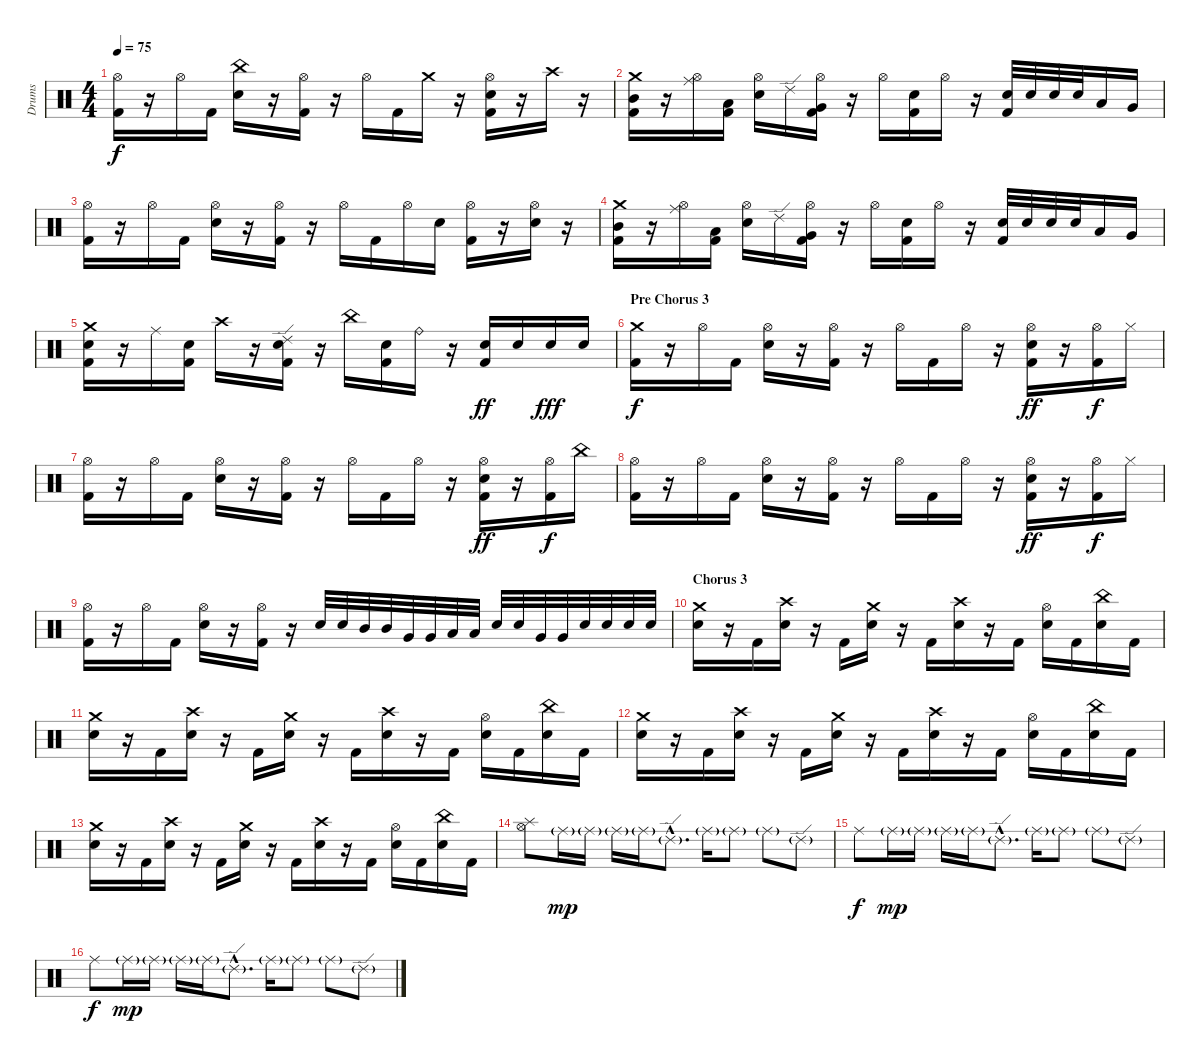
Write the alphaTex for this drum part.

\track ("Drums" "Drums") {instrument percussion}
\staff {score}
\articulation defaults
\ts (4 4)
\tempo 75
\clef neutral
\ks c
("Hi-Hat (open)" "Kick (hit) 2").16{dy f} r.16 "Hi-Hat (open)".16 "Kick (hit) 2".16 ("China (hit)" "Snare (hit) 2").16 r.16 ("Hi-Hat (open)" "Kick (hit) 2").16 r.16 "Hi-Hat (open)".16 "Kick (hit) 2".16 "Crash medium (hit)".16 r.16 ("Hi-Hat (open)" "Snare (hit) 2" "Kick (hit) 2").16 r.16 "Crash high (hit)".16 r.16 |
("Crash medium (hit)" "Mid Tom (hit)" "Kick (hit) 2").16 r.16 ("Ride (middle)" "Hi-Hat (open)").16 ("Low Tom (hit)" "Kick (hit) 2").16 ("Hi-Hat (open)" "Snare (hit) 2").16 "Ride (edge) 2".16 ("Hi-Hat (open)" "Very Low Tom (hit)" "Kick (hit) 2").16 r.16 "Hi-Hat (open)".16 ("Snare (hit) 2" "Kick (hit) 2").16 "Hi-Hat (open)".16 r.16 ("Snare (hit) 2" "Kick (hit) 2").32 "Snare (hit) 2".32 "Snare (hit) 2".32 "Snare (hit) 2".32 "Low Tom (hit)".16 "Very Low Tom (hit)".16 |
("Hi-Hat (open)" "Kick (hit) 2").16 r.16 "Hi-Hat (open)".16 "Kick (hit) 2".16 ("Hi-Hat (open)" "Snare (hit) 2").16 r.16 ("Hi-Hat (open)" "Kick (hit) 2").16 r.16 "Hi-Hat (open)".16 "Kick (hit) 2".16 "Hi-Hat (open)".16 "Snare (hit) 2".16 ("Hi-Hat (open)" "Kick (hit) 2").16 r.16 ("Hi-Hat (open)" "Snare (hit) 2").16 r.16 |
("Crash medium (hit)" "Mid Tom (hit)" "Kick (hit) 2").16 r.16 ("Ride (middle)" "Hi-Hat (open)").16 ("Low Tom (hit)" "Kick (hit) 2").16 ("Hi-Hat (open)" "Snare (hit) 2").16 "Ride (edge) 2".16 ("Hi-Hat (open)" "Very Low Tom (hit)" "Kick (hit) 2").16 r.16 "Hi-Hat (open)".16 ("Snare (hit) 2" "Kick (hit) 2").16 "Hi-Hat (open)".16 r.16 ("Snare (hit) 2" "Kick (hit) 2").32 "Snare (hit) 2".32 "Snare (hit) 2".32 "Snare (hit) 2".32 "Low Tom (hit)".16 "Very Low Tom (hit)".16 |
("Crash medium (hit)" "Snare (hit) 2" "Kick (hit) 2").16 r.16 "Ride (middle)".16 ("Snare (hit) 2" "Kick (hit) 2").16 "Crash high (hit)".16 r.16 ("Ride (edge) 2" "Snare (hit) 2" "Kick (hit) 2").16 r.16 "China (hit)".16 ("Snare (hit) 2" "Kick (hit) 2").16 "Ride (bell)".16 r.16 ("Snare (hit) 2" "Kick (hit) 2").16{dy ff} "Snare (hit) 2".16 "Snare (hit) 2".16{dy fff} "Snare (hit) 2".16 |
\section ("" "Pre Chorus 3")
("Crash medium (hit)" "Kick (hit) 2").16{dy f} r.16 "Hi-Hat (open)".16 "Kick (hit) 2".16 ("Hi-Hat (open)" "Snare (hit) 2").16 r.16 ("Hi-Hat (open)" "Kick (hit) 2").16 r.16 "Hi-Hat (open)".16 "Kick (hit) 2".16 "Hi-Hat (open)".16 r.16 ("Hi-Hat (open)" "Snare (hit) 2" "Kick (hit) 2").16{dy ff} r.16 ("Hi-Hat (open)" "Kick (hit) 2").16{dy f} "Hi-Hat (closed)".16 |
("Hi-Hat (open)" "Kick (hit) 2").16 r.16 "Hi-Hat (open)".16 "Kick (hit) 2".16 ("Hi-Hat (open)" "Snare (hit) 2").16 r.16 ("Hi-Hat (open)" "Kick (hit) 2").16 r.16 "Hi-Hat (open)".16 "Kick (hit) 2".16 "Hi-Hat (open)".16 r.16 ("Hi-Hat (open)" "Snare (hit) 2" "Kick (hit) 2").16{dy ff} r.16 ("Hi-Hat (open)" "Kick (hit) 2").16{dy f} "China (hit)".16 |
("Hi-Hat (open)" "Kick (hit) 2").16 r.16 "Hi-Hat (open)".16 "Kick (hit) 2".16 ("Hi-Hat (open)" "Snare (hit) 2").16 r.16 ("Hi-Hat (open)" "Kick (hit) 2").16 r.16 "Hi-Hat (open)".16 "Kick (hit) 2".16 "Hi-Hat (open)".16 r.16 ("Hi-Hat (open)" "Snare (hit) 2" "Kick (hit) 2").16{dy ff} r.16 ("Hi-Hat (open)" "Kick (hit) 2").16{dy f} "Hi-Hat (closed)".16 |
("Hi-Hat (open)" "Kick (hit) 2").16 r.16 "Hi-Hat (open)".16 "Kick (hit) 2".16 ("Hi-Hat (open)" "Snare (hit) 2").16 r.16 ("Hi-Hat (open)" "Kick (hit) 2").16 r.16 "Snare (hit) 2".32 "Snare (hit) 2".32 "Mid Tom (hit)".32 "Mid Tom (hit)".32 "Very Low Tom (hit)".32 "Very Low Tom (hit)".32 "Low Tom (hit)".32 "Low Tom (hit)".32 "Snare (hit) 2".32 "Snare (hit) 2".32 "Very Low Tom (hit)".32 "Very Low Tom (hit)".32 "Snare (hit) 2".32 "Snare (hit) 2".32 "Snare (hit) 2".32 "Snare (hit) 2".32 |
\section ("" "Chorus 3")
("Crash medium (hit)" "Snare (hit) 2").16 r.16 "Kick (hit) 2".16 ("Crash high (hit)" "Snare (hit) 2").16 r.16 "Kick (hit) 2".16 ("Crash medium (hit)" "Snare (hit) 2").16 r.16 "Kick (hit) 2".16 ("Crash high (hit)" "Snare (hit) 2").16 r.16 "Kick (hit) 2".16 ("Hi-Hat (open)" "Snare (hit) 2").16 "Kick (hit) 2".16 ("China (hit)" "Snare (hit) 2").16 "Kick (hit) 2".16 |
("Crash medium (hit)" "Snare (hit) 2").16 r.16 "Kick (hit) 2".16 ("Crash high (hit)" "Snare (hit) 2").16 r.16 "Kick (hit) 2".16 ("Crash medium (hit)" "Snare (hit) 2").16 r.16 "Kick (hit) 2".16 ("Crash high (hit)" "Snare (hit) 2").16 r.16 "Kick (hit) 2".16 ("Hi-Hat (open)" "Snare (hit) 2").16 "Kick (hit) 2".16 ("China (hit)" "Snare (hit) 2").16 "Kick (hit) 2".16 |
("Crash medium (hit)" "Snare (hit) 2").16 r.16 "Kick (hit) 2".16 ("Crash high (hit)" "Snare (hit) 2").16 r.16 "Kick (hit) 2".16 ("Crash medium (hit)" "Snare (hit) 2").16 r.16 "Kick (hit) 2".16 ("Crash high (hit)" "Snare (hit) 2").16 r.16 "Kick (hit) 2".16 ("Hi-Hat (open)" "Snare (hit) 2").16 "Kick (hit) 2".16 ("China (hit)" "Snare (hit) 2").16 "Kick (hit) 2".16 |
("Crash medium (hit)" "Snare (hit) 2").16 r.16 "Kick (hit) 2".16 ("Crash high (hit)" "Snare (hit) 2").16 r.16 "Kick (hit) 2".16 ("Crash medium (hit)" "Snare (hit) 2").16 r.16 "Kick (hit) 2".16 ("Crash high (hit)" "Snare (hit) 2").16 r.16 "Kick (hit) 2".16 ("Hi-Hat (open)" "Snare (hit) 2").16 "Kick (hit) 2".16 ("China (hit)" "Snare (hit) 2").16 "Kick (hit) 2".16 |
("Splash (hit)" "Hi-Hat (open)").8 "Ride (middle)"{g}.16{dy mp} "Ride (middle)"{g}.16 "Ride (middle)"{g}.16 "Ride (middle)"{g}.16 "Ride (edge) 2"{g hac}.8{d} "Ride (middle)"{g}.16 "Ride (middle)"{g}.8 "Ride (middle)"{g}.8 "Ride (edge) 2"{g}.8 |
"Ride (middle)".8{dy f} "Ride (middle)"{g}.16{dy mp} "Ride (middle)"{g}.16 "Ride (middle)"{g}.16 "Ride (middle)"{g}.16 "Ride (edge) 2"{g hac}.8{d} "Ride (middle)"{g}.16 "Ride (middle)"{g}.8 "Ride (middle)"{g}.8 "Ride (edge) 2"{g}.8 |
"Ride (middle)".8{dy f} "Ride (middle)"{g}.16{dy mp} "Ride (middle)"{g}.16 "Ride (middle)"{g}.16 "Ride (middle)"{g}.16 "Ride (edge) 2"{g hac}.8{d} "Ride (middle)"{g}.16 "Ride (middle)"{g}.8 "Ride (middle)"{g}.8 "Ride (edge) 2"{g}.8
